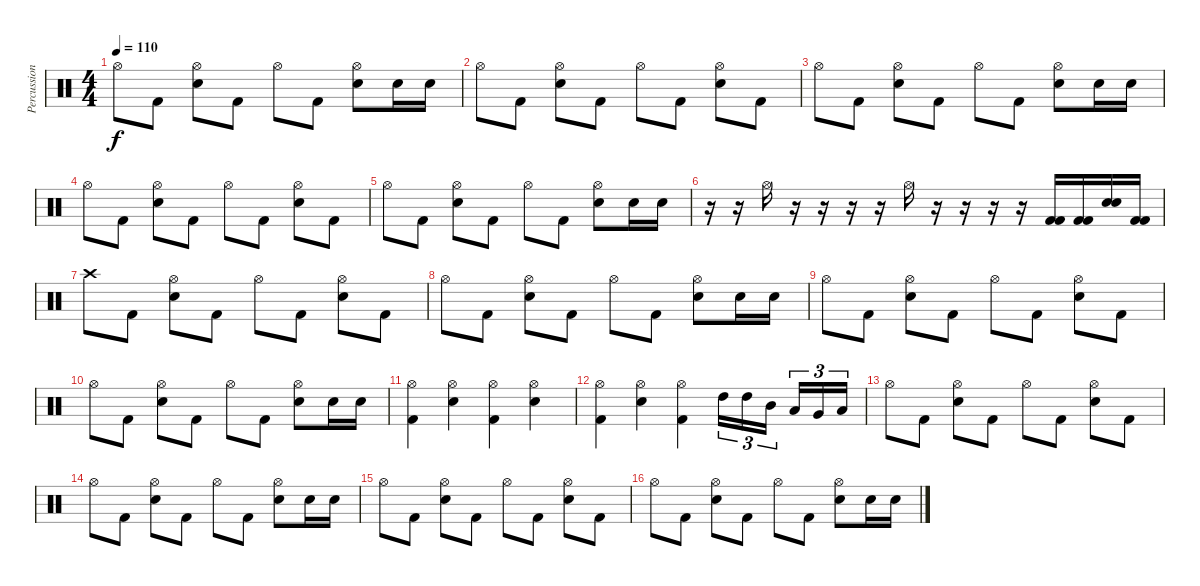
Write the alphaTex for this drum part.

\track ("Percussion" "Percussion") {instrument percussion}
\staff {score}
\articulation defaults
\ts (4 4)
\tempo 110
\clef neutral
\ks c "Hi-Hat (open)".8{dy f} "Kick (hit) 2".8
("Electric Snare (hit)" "Hi-Hat (open)").8 "Kick (hit) 2".8 "Hi-Hat (open)".8 "Kick (hit) 2".8 ("Electric Snare (hit)" "Hi-Hat (open)").8 "Electric Snare (hit)".16 "Electric Snare (hit)".16 |
"Hi-Hat (open)".8 "Kick (hit) 2".8 ("Electric Snare (hit)" "Hi-Hat (open)").8 "Kick (hit) 2".8 "Hi-Hat (open)".8 "Kick (hit) 2".8 ("Electric Snare (hit)" "Hi-Hat (open)").8 "Kick (hit) 2".8 |
"Hi-Hat (open)".8 "Kick (hit) 2".8 ("Electric Snare (hit)" "Hi-Hat (open)").8 "Kick (hit) 2".8 "Hi-Hat (open)".8 "Kick (hit) 2".8 ("Electric Snare (hit)" "Hi-Hat (open)").8 "Electric Snare (hit)".16 "Electric Snare (hit)".16 |
"Hi-Hat (open)".8 "Kick (hit) 2".8 ("Electric Snare (hit)" "Hi-Hat (open)").8 "Kick (hit) 2".8 "Hi-Hat (open)".8 "Kick (hit) 2".8 ("Electric Snare (hit)" "Hi-Hat (open)").8 "Kick (hit) 2".8 |
"Hi-Hat (open)".8 "Kick (hit) 2".8 ("Electric Snare (hit)" "Hi-Hat (open)").8 "Kick (hit) 2".8 "Hi-Hat (open)".8 "Kick (hit) 2".8 ("Electric Snare (hit)" "Hi-Hat (open)").8 "Electric Snare (hit)".16 "Electric Snare (hit)".16 |
r.16 r.16 "Hi-Hat (open)".16 r.16 r.16 r.16 r.16 "Hi-Hat (open)".16 r.16 r.16 r.16 r.16 ("Kick (hit) 2" "Kick (hit) 2").16 ("Kick (hit) 2" "Kick (hit) 2").16 ("Electric Snare (hit)" "Electric Snare (hit)").16 ("Kick (hit) 2" "Kick (hit) 2").16 |
"Crash high (hit)".8 "Kick (hit) 2".8 ("Electric Snare (hit)" "Hi-Hat (open)").8 "Kick (hit) 2".8 "Hi-Hat (open)".8 "Kick (hit) 2".8 ("Electric Snare (hit)" "Hi-Hat (open)").8 "Kick (hit) 2".8 |
"Hi-Hat (open)".8 "Kick (hit) 2".8 ("Electric Snare (hit)" "Hi-Hat (open)").8 "Kick (hit) 2".8 "Hi-Hat (open)".8 "Kick (hit) 2".8 ("Electric Snare (hit)" "Hi-Hat (open)").8 "Electric Snare (hit)".16 "Electric Snare (hit)".16 |
"Hi-Hat (open)".8 "Kick (hit) 2".8 ("Electric Snare (hit)" "Hi-Hat (open)").8 "Kick (hit) 2".8 "Hi-Hat (open)".8 "Kick (hit) 2".8 ("Electric Snare (hit)" "Hi-Hat (open)").8 "Kick (hit) 2".8 |
"Hi-Hat (open)".8 "Kick (hit) 2".8 ("Electric Snare (hit)" "Hi-Hat (open)").8 "Kick (hit) 2".8 "Hi-Hat (open)".8 "Kick (hit) 2".8 ("Electric Snare (hit)" "Hi-Hat (open)").8 "Electric Snare (hit)".16 "Electric Snare (hit)".16 |
("Hi-Hat (open)" "Kick (hit) 2").4 ("Hi-Hat (open)" "Electric Snare (hit)").4 ("Hi-Hat (open)" "Kick (hit) 2").4 ("Hi-Hat (open)" "Electric Snare (hit)").4 |
("Hi-Hat (open)" "Kick (hit) 2").4 ("Hi-Hat (open)" "Electric Snare (hit)").4 ("Hi-Hat (open)" "Kick (hit) 2").4 "High Tom (hit)".16{tu (3 2)} "High Tom (hit)".16{tu (3 2)} "Mid Tom (hit)".16{tu (3 2) beam splitsecondary} "Low Tom (hit)".16{tu (3 2)} "Very Low Tom (hit)".16{tu (3 2)} "Low Floor Tom (hit)".16{tu (3 2)} |
"Hi-Hat (open)".8 "Kick (hit) 2".8 ("Electric Snare (hit)" "Hi-Hat (open)").8 "Kick (hit) 2".8 "Hi-Hat (open)".8 "Kick (hit) 2".8 ("Electric Snare (hit)" "Hi-Hat (open)").8 "Kick (hit) 2".8 |
"Hi-Hat (open)".8 "Kick (hit) 2".8 ("Electric Snare (hit)" "Hi-Hat (open)").8 "Kick (hit) 2".8 "Hi-Hat (open)".8 "Kick (hit) 2".8 ("Electric Snare (hit)" "Hi-Hat (open)").8 "Electric Snare (hit)".16 "Electric Snare (hit)".16 |
"Hi-Hat (open)".8 "Kick (hit) 2".8 ("Electric Snare (hit)" "Hi-Hat (open)").8 "Kick (hit) 2".8 "Hi-Hat (open)".8 "Kick (hit) 2".8 ("Electric Snare (hit)" "Hi-Hat (open)").8 "Kick (hit) 2".8 |
"Hi-Hat (open)".8 "Kick (hit) 2".8 ("Electric Snare (hit)" "Hi-Hat (open)").8 "Kick (hit) 2".8 "Hi-Hat (open)".8 "Kick (hit) 2".8 ("Electric Snare (hit)" "Hi-Hat (open)").8 "Electric Snare (hit)".16 "Electric Snare (hit)".16
